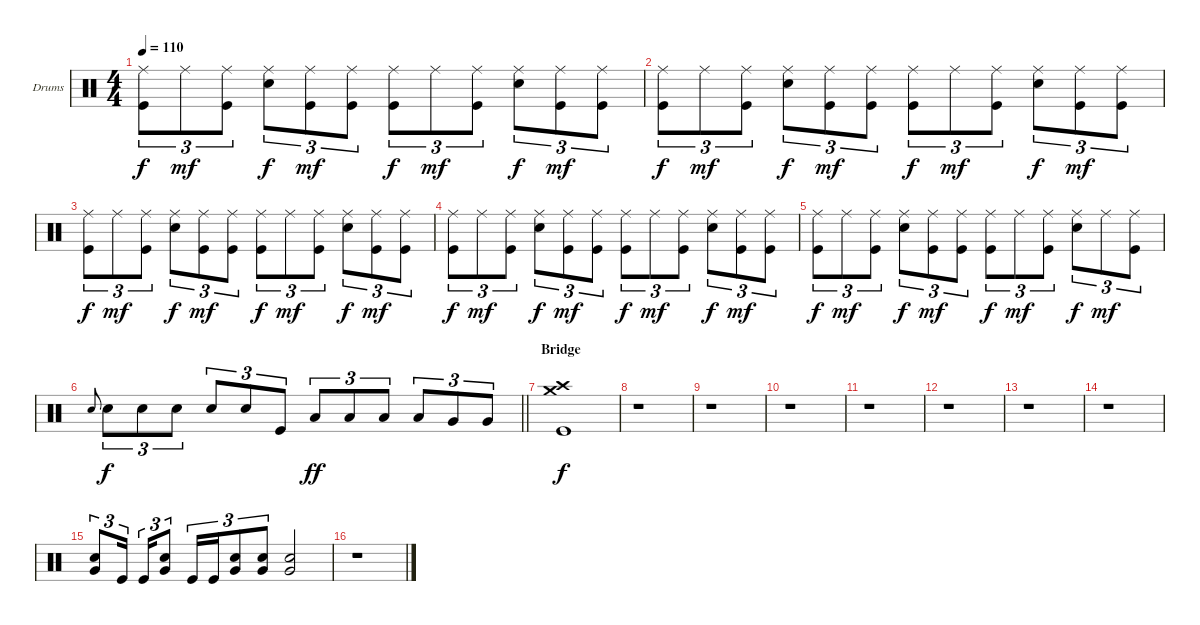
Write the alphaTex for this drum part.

\bracketExtendMode groupsimilarinstruments
\firstSystemTrackNameOrientation horizontal
\otherSystemsTrackNameOrientation horizontal
\track ("Drumkit" "Drums") {instrument percussion}
\staff {score}
\articulation defaults
\ts (4 4)
\tempo 110
\clef neutral
\ks c
("Ride (middle)" "Kick (hit)").8{tu (3 2) dy f} "Ride (middle)".8{tu (3 2) dy mf} ("Ride (middle)" "Kick (hit)").8{tu (3 2)} ("Ride (middle)" "Snare (hit) 2").8{tu (3 2) dy f} ("Ride (middle)" "Kick (hit)").8{tu (3 2) dy mf} ("Ride (middle)" "Kick (hit)").8{tu (3 2)} ("Ride (middle)" "Kick (hit)").8{tu (3 2) dy f} "Ride (middle)".8{tu (3 2) dy mf} ("Ride (middle)" "Kick (hit)").8{tu (3 2)} ("Ride (middle)" "Snare (hit) 2").8{tu (3 2) dy f} ("Ride (middle)" "Kick (hit)").8{tu (3 2) dy mf} ("Ride (middle)" "Kick (hit)").8{tu (3 2)} |
("Ride (middle)" "Kick (hit)").8{tu (3 2) dy f} "Ride (middle)".8{tu (3 2) dy mf} ("Ride (middle)" "Kick (hit)").8{tu (3 2)} ("Ride (middle)" "Snare (hit) 2").8{tu (3 2) dy f} ("Ride (middle)" "Kick (hit)").8{tu (3 2) dy mf} ("Ride (middle)" "Kick (hit)").8{tu (3 2)} ("Ride (middle)" "Kick (hit)").8{tu (3 2) dy f} "Ride (middle)".8{tu (3 2) dy mf} ("Ride (middle)" "Kick (hit)").8{tu (3 2)} ("Ride (middle)" "Snare (hit) 2").8{tu (3 2) dy f} ("Ride (middle)" "Kick (hit)").8{tu (3 2) dy mf} ("Ride (middle)" "Kick (hit)").8{tu (3 2)} |
("Ride (middle)" "Kick (hit)").8{tu (3 2) dy f} "Ride (middle)".8{tu (3 2) dy mf} ("Ride (middle)" "Kick (hit)").8{tu (3 2)} ("Ride (middle)" "Snare (hit) 2").8{tu (3 2) dy f} ("Ride (middle)" "Kick (hit)").8{tu (3 2) dy mf} ("Ride (middle)" "Kick (hit)").8{tu (3 2)} ("Ride (middle)" "Kick (hit)").8{tu (3 2) dy f} "Ride (middle)".8{tu (3 2) dy mf} ("Ride (middle)" "Kick (hit)").8{tu (3 2)} ("Ride (middle)" "Snare (hit) 2").8{tu (3 2) dy f} ("Ride (middle)" "Kick (hit)").8{tu (3 2) dy mf} ("Ride (middle)" "Kick (hit)").8{tu (3 2)} |
("Ride (middle)" "Kick (hit)").8{tu (3 2) dy f} "Ride (middle)".8{tu (3 2) dy mf} ("Ride (middle)" "Kick (hit)").8{tu (3 2)} ("Ride (middle)" "Snare (hit) 2").8{tu (3 2) dy f} ("Ride (middle)" "Kick (hit)").8{tu (3 2) dy mf} ("Ride (middle)" "Kick (hit)").8{tu (3 2)} ("Ride (middle)" "Kick (hit)").8{tu (3 2) dy f} "Ride (middle)".8{tu (3 2) dy mf} ("Ride (middle)" "Kick (hit)").8{tu (3 2)} ("Ride (middle)" "Snare (hit) 2").8{tu (3 2) dy f} ("Ride (middle)" "Kick (hit)").8{tu (3 2) dy mf} ("Ride (middle)" "Kick (hit)").8{tu (3 2)} |
("Ride (middle)" "Kick (hit)").8{tu (3 2) dy f} "Ride (middle)".8{tu (3 2) dy mf} ("Ride (middle)" "Kick (hit)").8{tu (3 2)} ("Ride (middle)" "Snare (hit) 2").8{tu (3 2) dy f} ("Ride (middle)" "Kick (hit)").8{tu (3 2) dy mf} ("Ride (middle)" "Kick (hit)").8{tu (3 2)} ("Ride (middle)" "Kick (hit)").8{tu (3 2) dy f} "Ride (middle)".8{tu (3 2) dy mf} ("Ride (middle)" "Kick (hit)").8{tu (3 2)} ("Ride (middle)" "Snare (hit) 2").8{tu (3 2) dy f} "Ride (middle)".8{tu (3 2) dy mf} ("Ride (middle)" "Kick (hit)").8{tu (3 2)} |
\barLineRight lightlight "Snare (hit) 2".8{gr onbeat} "Snare (hit) 2".8{tu (3 2) dy f} "Snare (hit) 2".8{tu (3 2)} "Snare (hit) 2".8{tu (3 2)} "Snare (hit) 2".8{tu (3 2)} "Snare (hit) 2".8{tu (3 2)} "Kick (hit)".8{tu (3 2)} "Low Tom (hit)".8{tu (3 2) dy ff} "Low Tom (hit)".8{tu (3 2)} "Low Tom (hit)".8{tu (3 2)} "Low Tom (hit)".8{tu (3 2)} "Very Low Tom (hit)".8{tu (3 2)} "Very Low Tom (hit)".8{tu (3 2)}
|
\section ("" "Bridge")
("Crash medium (hit)" "Crash high (hit)" "Kick (hit)").1{dy f} |
r.1 |
r.1 |
r.1 |
r.1 |
r.1 |
r.1 |
r.1 |
("Very Low Tom (hit)" "Snare (hit) 2").8{tu (3 2)} "Kick (hit)".16{tu (3 2)} "Kick (hit)".16{tu (3 2)} ("Very Low Tom (hit)" "Snare (hit) 2").8{tu (3 2)} "Kick (hit)".16{tu (3 2)} "Kick (hit)".16{tu (3 2)} ("Very Low Tom (hit)" "Snare (hit) 2").8{tu (3 2)} ("Very Low Tom (hit)" "Snare (hit) 2").8{tu (3 2)} ("Very Low Tom (hit)" "Snare (hit) 2").2 |
r.1
